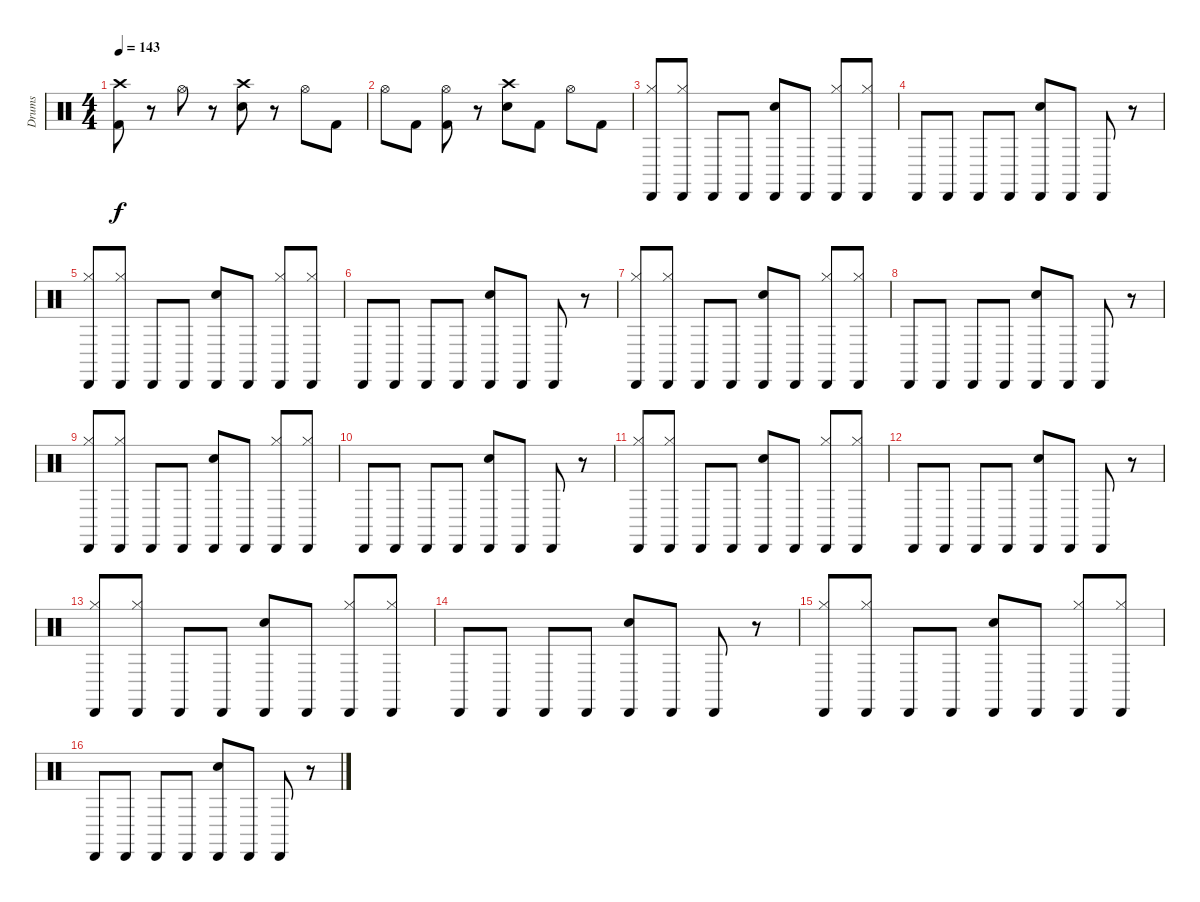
\track ("Drums" "Drums") {instrument percussion}
\staff {score}
\articulation defaults
\ts (4 4)
\tempo 143
\clef neutral
\ks c
("Crash high (hit)" "Kick (hit) 2").8{dy f} r.8 "Hi-Hat (open)".8 r.8 ("Crash high (hit)" "Electric Snare (hit)").8 r.8 "Hi-Hat (open)".8 "Kick (hit) 2".8 |
"Hi-Hat (open)".8 "Kick (hit) 2".8 ("Kick (hit) 2" "Hi-Hat (open)").8 r.8 ("Crash high (hit)" "Electric Snare (hit)").8 "Kick (hit) 2".8 "Hi-Hat (open)".8 "Kick (hit) 2".8 |
("Cabasa (hit)" "Hi-Hat (closed)").8 ("Cabasa (hit)" "Hi-Hat (closed)").8 "Cabasa (hit)".8 "Cabasa (hit)".8 ("Cabasa (hit)" "Electric Snare (hit)").8 "Cabasa (hit)".8 ("Cabasa (hit)" "Hi-Hat (closed)").8 ("Cabasa (hit)" "Hi-Hat (closed)").8 |
"Cabasa (hit)".8 "Cabasa (hit)".8 "Cabasa (hit)".8 "Cabasa (hit)".8 ("Cabasa (hit)" "Electric Snare (hit)").8 "Cabasa (hit)".8 "Cabasa (hit)".8 r.8 |
("Cabasa (hit)" "Hi-Hat (closed)").8 ("Cabasa (hit)" "Hi-Hat (closed)").8 "Cabasa (hit)".8 "Cabasa (hit)".8 ("Cabasa (hit)" "Electric Snare (hit)").8 "Cabasa (hit)".8 ("Cabasa (hit)" "Hi-Hat (closed)").8 ("Cabasa (hit)" "Hi-Hat (closed)").8 |
"Cabasa (hit)".8 "Cabasa (hit)".8 "Cabasa (hit)".8 "Cabasa (hit)".8 ("Cabasa (hit)" "Electric Snare (hit)").8 "Cabasa (hit)".8 "Cabasa (hit)".8 r.8 |
("Cabasa (hit)" "Hi-Hat (closed)").8 ("Cabasa (hit)" "Hi-Hat (closed)").8 "Cabasa (hit)".8 "Cabasa (hit)".8 ("Cabasa (hit)" "Electric Snare (hit)").8 "Cabasa (hit)".8 ("Cabasa (hit)" "Hi-Hat (closed)").8 ("Cabasa (hit)" "Hi-Hat (closed)").8 |
"Cabasa (hit)".8 "Cabasa (hit)".8 "Cabasa (hit)".8 "Cabasa (hit)".8 ("Cabasa (hit)" "Electric Snare (hit)").8 "Cabasa (hit)".8 "Cabasa (hit)".8 r.8 |
("Cabasa (hit)" "Hi-Hat (closed)").8 ("Cabasa (hit)" "Hi-Hat (closed)").8 "Cabasa (hit)".8 "Cabasa (hit)".8 ("Cabasa (hit)" "Electric Snare (hit)").8 "Cabasa (hit)".8 ("Cabasa (hit)" "Hi-Hat (closed)").8 ("Cabasa (hit)" "Hi-Hat (closed)").8 |
"Cabasa (hit)".8 "Cabasa (hit)".8 "Cabasa (hit)".8 "Cabasa (hit)".8 ("Cabasa (hit)" "Electric Snare (hit)").8 "Cabasa (hit)".8 "Cabasa (hit)".8 r.8 |
("Cabasa (hit)" "Hi-Hat (closed)").8 ("Cabasa (hit)" "Hi-Hat (closed)").8 "Cabasa (hit)".8 "Cabasa (hit)".8 ("Cabasa (hit)" "Electric Snare (hit)").8 "Cabasa (hit)".8 ("Cabasa (hit)" "Hi-Hat (closed)").8 ("Cabasa (hit)" "Hi-Hat (closed)").8 |
"Cabasa (hit)".8 "Cabasa (hit)".8 "Cabasa (hit)".8 "Cabasa (hit)".8 ("Cabasa (hit)" "Electric Snare (hit)").8 "Cabasa (hit)".8 "Cabasa (hit)".8 r.8 |
("Cabasa (hit)" "Hi-Hat (closed)").8 ("Cabasa (hit)" "Hi-Hat (closed)").8 "Cabasa (hit)".8 "Cabasa (hit)".8 ("Cabasa (hit)" "Electric Snare (hit)").8 "Cabasa (hit)".8 ("Cabasa (hit)" "Hi-Hat (closed)").8 ("Cabasa (hit)" "Hi-Hat (closed)").8 |
"Cabasa (hit)".8 "Cabasa (hit)".8 "Cabasa (hit)".8 "Cabasa (hit)".8 ("Cabasa (hit)" "Electric Snare (hit)").8 "Cabasa (hit)".8 "Cabasa (hit)".8 r.8 |
("Cabasa (hit)" "Hi-Hat (closed)").8 ("Cabasa (hit)" "Hi-Hat (closed)").8 "Cabasa (hit)".8 "Cabasa (hit)".8 ("Cabasa (hit)" "Electric Snare (hit)").8 "Cabasa (hit)".8 ("Cabasa (hit)" "Hi-Hat (closed)").8 ("Cabasa (hit)" "Hi-Hat (closed)").8 |
"Cabasa (hit)".8 "Cabasa (hit)".8 "Cabasa (hit)".8 "Cabasa (hit)".8 ("Cabasa (hit)" "Electric Snare (hit)").8 "Cabasa (hit)".8 "Cabasa (hit)".8 r.8
